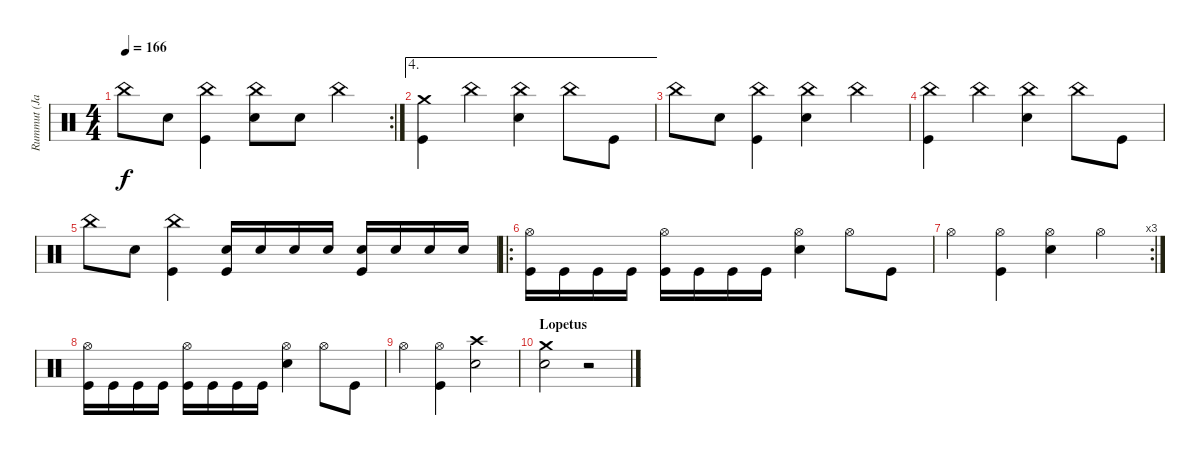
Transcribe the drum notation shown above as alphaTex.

\track ("Rummut (Janne)" "Rummut (Ja") {instrument percussion}
\staff {score}
\articulation defaults
\rc 2
\ts (4 4)
\tempo 166
\clef neutral
\ks c "China (hit)".8{dy f} "Snare (hit) 2".8
("China (hit)" "Kick (hit)").4 ("China (hit)" "Snare (hit) 2").8 "Snare (hit) 2".8 "China (hit)".4 |
\ae 4
("Crash medium (hit)" "Kick (hit)").4 "China (hit)".4 ("China (hit)" "Snare (hit) 2").4 "China (hit)".8 "Kick (hit)".8 |
"China (hit)".8 "Snare (hit) 2".8 ("China (hit)" "Kick (hit)").4 ("China (hit)" "Snare (hit) 2").4 "China (hit)".4 |
("China (hit)" "Kick (hit)").4 "China (hit)".4 ("China (hit)" "Snare (hit) 2").4 "China (hit)".8 "Kick (hit)".8 |
"China (hit)".8 "Snare (hit) 2".8 ("China (hit)" "Kick (hit)").4 ("Snare (hit) 2" "Kick (hit)").16 "Snare (hit) 2".16 "Snare (hit) 2".16 "Snare (hit) 2".16 ("Snare (hit) 2" "Kick (hit)").16 "Snare (hit) 2".16 "Snare (hit) 2".16 "Snare (hit) 2".16 |
\ro
("Hi-Hat (open)" "Kick (hit)").16 "Kick (hit)".16 "Kick (hit)".16 "Kick (hit)".16 ("Hi-Hat (open)" "Kick (hit)").16 "Kick (hit)".16 "Kick (hit)".16 "Kick (hit)".16 ("Hi-Hat (open)" "Snare (hit) 2").4 "Hi-Hat (open)".8 "Kick (hit)".8 |
\rc 3 "Hi-Hat (open)".4
("Hi-Hat (open)" "Kick (hit)").4 ("Hi-Hat (open)" "Snare (hit) 2").4 "Hi-Hat (open)".4 |
("Hi-Hat (open)" "Kick (hit)").16 "Kick (hit)".16 "Kick (hit)".16 "Kick (hit)".16 ("Hi-Hat (open)" "Kick (hit)").16 "Kick (hit)".16 "Kick (hit)".16 "Kick (hit)".16 ("Hi-Hat (open)" "Snare (hit) 2").4 "Hi-Hat (open)".8 "Kick (hit)".8 |
"Hi-Hat (open)".4 ("Hi-Hat (open)" "Kick (hit)").4 ("Crash high (hit)" "Snare (hit) 2").2 |
\section ("" "Lopetus")
("Crash medium (hit)" "Snare (hit) 2").2 r.2
